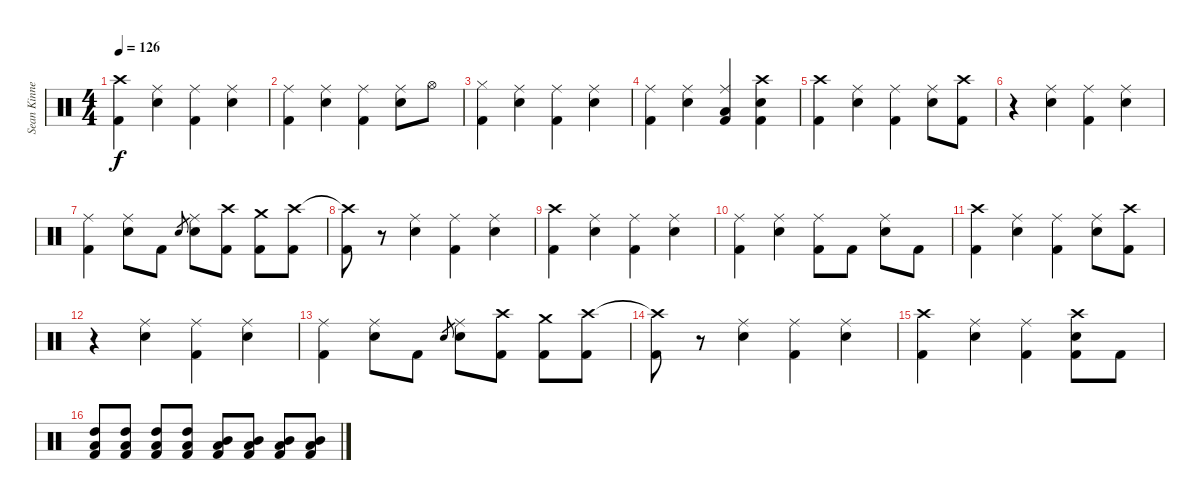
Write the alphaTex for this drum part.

\track ("Sean Kinney - Drums" "Sean Kinne") {instrument percussion}
\staff {score}
\articulation defaults
\ts (4 4)
\tempo 126
\clef neutral
\ks c
("Crash high (hit)" "Kick (hit) 2").4{dy f} ("Ride (middle)" "Electric Snare (hit)").4 ("Ride (middle)" "Kick (hit) 2").4 ("Ride (middle)" "Electric Snare (hit)").4 |
("Ride (middle)" "Kick (hit) 2").4 ("Ride (middle)" "Electric Snare (hit)").4 ("Ride (middle)" "Kick (hit) 2").4 ("Ride (middle)" "Electric Snare (hit)").8 "Hi-Hat (open)".8 |
("Hi-Hat (closed)" "Kick (hit) 2").4 ("Ride (middle)" "Electric Snare (hit)").4 ("Ride (middle)" "Kick (hit) 2").4 ("Ride (middle)" "Electric Snare (hit)").4 |
("Ride (middle)" "Kick (hit) 2").4 ("Ride (middle)" "Electric Snare (hit)").4 ("Ride (middle)" "Low Tom (hit)" "Kick (hit) 2").4 ("Crash high (hit)" "Electric Snare (hit)" "Kick (hit) 2").4 |
("Crash high (hit)" "Kick (hit) 2").4 ("Ride (middle)" "Electric Snare (hit)").4 ("Ride (middle)" "Kick (hit) 2").4 ("Ride (middle)" "Electric Snare (hit)").8 ("Crash high (hit)" "Kick (hit) 2").8 |
r.4 ("Ride (middle)" "Electric Snare (hit)").4 ("Ride (middle)" "Kick (hit) 2").4 ("Ride (middle)" "Electric Snare (hit)").4 |
("Ride (middle)" "Kick (hit) 2").4 ("Ride (middle)" "Electric Snare (hit)").8 "Kick (hit) 2".8 "Electric Snare (hit)".8{gr} ("Ride (middle)" "Electric Snare (hit)").8 ("Crash high (hit)" "Kick (hit) 2").8 ("Crash medium (hit)" "Kick (hit) 2").8 ("Crash high (hit)" "Kick (hit) 2").8 |
("Crash high (hit)"{t} "Kick (hit) 2").8 r.8 ("Ride (middle)" "Electric Snare (hit)").4 ("Ride (middle)" "Kick (hit) 2").4 ("Ride (middle)" "Electric Snare (hit)").4 |
("Crash high (hit)" "Kick (hit) 2").4 ("Ride (middle)" "Electric Snare (hit)").4 ("Ride (middle)" "Kick (hit) 2").4 ("Ride (middle)" "Electric Snare (hit)").4 |
("Ride (middle)" "Kick (hit) 2").4 ("Ride (middle)" "Electric Snare (hit)").4 ("Ride (middle)" "Kick (hit) 2").8 "Kick (hit) 2".8 ("Ride (middle)" "Electric Snare (hit)").8 "Kick (hit) 2".8 |
("Crash high (hit)" "Kick (hit) 2").4 ("Ride (middle)" "Electric Snare (hit)").4 ("Ride (middle)" "Kick (hit) 2").4 ("Ride (middle)" "Electric Snare (hit)").8 ("Crash high (hit)" "Kick (hit) 2").8 |
r.4 ("Ride (middle)" "Electric Snare (hit)").4 ("Ride (middle)" "Kick (hit) 2").4 ("Ride (middle)" "Electric Snare (hit)").4 |
("Ride (middle)" "Kick (hit) 2").4 ("Ride (middle)" "Electric Snare (hit)").8 "Kick (hit) 2".8 "Electric Snare (hit)".8{gr} ("Ride (middle)" "Electric Snare (hit)").8 ("Crash high (hit)" "Kick (hit) 2").8 ("Crash medium (hit)" "Kick (hit) 2").8 ("Crash high (hit)" "Kick (hit) 2").8 |
("Crash high (hit)"{t} "Kick (hit) 2").8 r.8 ("Ride (middle)" "Electric Snare (hit)").4 ("Ride (middle)" "Kick (hit) 2").4 ("Ride (middle)" "Electric Snare (hit)").4 |
("Crash high (hit)" "Kick (hit) 2").4 ("Ride (middle)" "Electric Snare (hit)").4 ("Ride (middle)" "Kick (hit) 2").4 ("Crash high (hit)" "Electric Snare (hit)" "Kick (hit) 2").8 "Kick (hit) 2".8 |
("High Tom (hit)" "Low Tom (hit)" "Kick (hit) 2").8 ("High Tom (hit)" "Low Tom (hit)" "Kick (hit) 2").8 ("High Tom (hit)" "Low Tom (hit)" "Kick (hit) 2").8 ("High Tom (hit)" "Low Tom (hit)" "Kick (hit) 2").8 ("Mid Tom (hit)" "Low Tom (hit)" "Kick (hit) 2").8 ("Mid Tom (hit)" "Low Tom (hit)" "Kick (hit) 2").8 ("Mid Tom (hit)" "Low Tom (hit)" "Kick (hit) 2").8 ("Mid Tom (hit)" "Low Tom (hit)" "Kick (hit) 2").8
